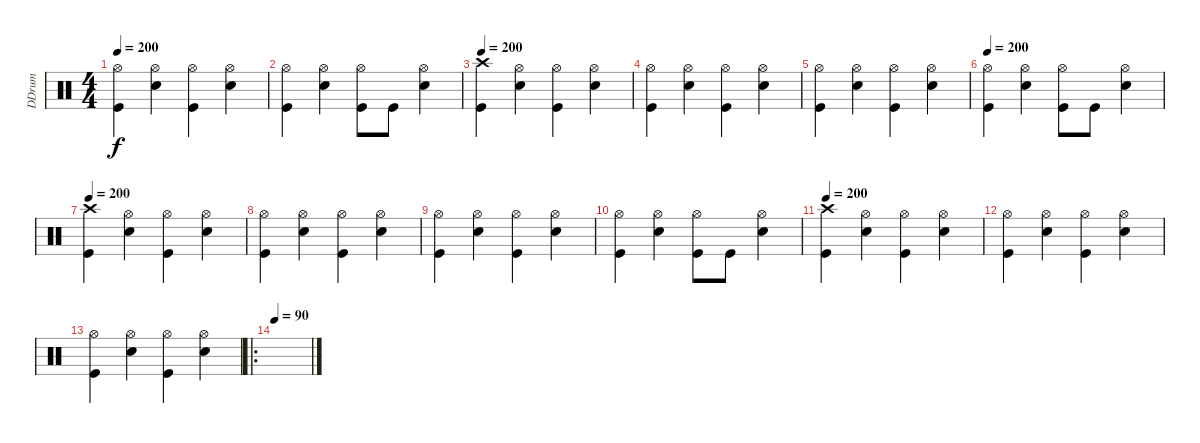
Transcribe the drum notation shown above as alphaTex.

\track ("DDrum" "DDrum") {instrument percussion}
\staff {score}
\articulation defaults
\ts (4 4)
\tempo 200
\clef neutral
\ks c
("Hi-Hat (open)" "Kick (hit)").4{dy f} ("Hi-Hat (open)" "Electric Snare (hit)").4 ("Hi-Hat (open)" "Kick (hit)").4 ("Hi-Hat (open)" "Electric Snare (hit)").4 |
("Hi-Hat (open)" "Kick (hit)").4 ("Hi-Hat (open)" "Electric Snare (hit)").4 ("Hi-Hat (open)" "Kick (hit)").8 "Kick (hit)".8 ("Hi-Hat (open)" "Electric Snare (hit)").4 |
\tempo 200
("Crash high (hit)" "Kick (hit)").4 ("Hi-Hat (open)" "Electric Snare (hit)").4 ("Hi-Hat (open)" "Kick (hit)").4 ("Hi-Hat (open)" "Electric Snare (hit)").4 |
("Hi-Hat (open)" "Kick (hit)").4 ("Hi-Hat (open)" "Electric Snare (hit)").4 ("Hi-Hat (open)" "Kick (hit)").4 ("Hi-Hat (open)" "Electric Snare (hit)").4 |
("Hi-Hat (open)" "Kick (hit)").4 ("Hi-Hat (open)" "Electric Snare (hit)").4 ("Hi-Hat (open)" "Kick (hit)").4 ("Hi-Hat (open)" "Electric Snare (hit)").4 |
\tempo 200
("Hi-Hat (open)" "Kick (hit)").4 ("Hi-Hat (open)" "Electric Snare (hit)").4 ("Hi-Hat (open)" "Kick (hit)").8 "Kick (hit)".8 ("Hi-Hat (open)" "Electric Snare (hit)").4 |
\tempo 200
("Crash high (hit)" "Kick (hit)").4 ("Hi-Hat (open)" "Electric Snare (hit)").4 ("Hi-Hat (open)" "Kick (hit)").4 ("Hi-Hat (open)" "Electric Snare (hit)").4 |
("Hi-Hat (open)" "Kick (hit)").4 ("Hi-Hat (open)" "Electric Snare (hit)").4 ("Hi-Hat (open)" "Kick (hit)").4 ("Hi-Hat (open)" "Electric Snare (hit)").4 |
("Hi-Hat (open)" "Kick (hit)").4 ("Hi-Hat (open)" "Electric Snare (hit)").4 ("Hi-Hat (open)" "Kick (hit)").4 ("Hi-Hat (open)" "Electric Snare (hit)").4 |
("Hi-Hat (open)" "Kick (hit)").4 ("Hi-Hat (open)" "Electric Snare (hit)").4 ("Hi-Hat (open)" "Kick (hit)").8 "Kick (hit)".8 ("Hi-Hat (open)" "Electric Snare (hit)").4 |
\tempo 200
("Crash high (hit)" "Kick (hit)").4 ("Hi-Hat (open)" "Electric Snare (hit)").4 ("Hi-Hat (open)" "Kick (hit)").4 ("Hi-Hat (open)" "Electric Snare (hit)").4 |
("Hi-Hat (open)" "Kick (hit)").4 ("Hi-Hat (open)" "Electric Snare (hit)").4 ("Hi-Hat (open)" "Kick (hit)").4 ("Hi-Hat (open)" "Electric Snare (hit)").4 |
("Hi-Hat (open)" "Kick (hit)").4 ("Hi-Hat (open)" "Electric Snare (hit)").4 ("Hi-Hat (open)" "Kick (hit)").4 ("Hi-Hat (open)" "Electric Snare (hit)").4 |
\ro
\tempo 90
